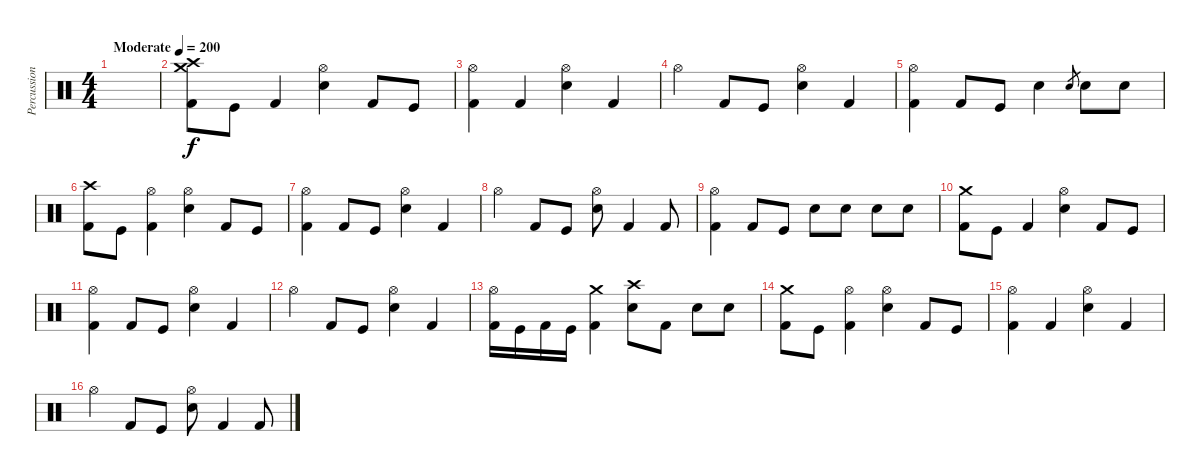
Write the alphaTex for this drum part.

\track ("Percussion" "Percussion") {instrument percussion}
\staff {score}
\articulation defaults
\ts (4 4)
\tempo (200 "Moderate")
\clef neutral
\ks c
|
("Crash medium (hit)" "Crash high (hit)" "Kick (hit) 2").8 "Kick (hit)".8 "Kick (hit) 2".4 ("Hi-Hat (open)" "Snare (hit) 2").4 "Kick (hit) 2".8 "Kick (hit)".8 |
("Hi-Hat (open)" "Kick (hit) 2").4 "Kick (hit) 2".4 ("Hi-Hat (open)" "Snare (hit) 2").4 "Kick (hit) 2".4 |
"Hi-Hat (open)".4 "Kick (hit) 2".8 "Kick (hit)".8 ("Hi-Hat (open)" "Snare (hit) 2").4 "Kick (hit) 2".4 |
("Hi-Hat (open)" "Kick (hit) 2").4 "Kick (hit) 2".8 "Kick (hit)".8 "Snare (hit) 2".4 "Snare (hit) 2".8{gr} "Snare (hit) 2".8 "Snare (hit) 2".8 |
("Crash high (hit)" "Kick (hit) 2").8 "Kick (hit)".8 ("Hi-Hat (open)" "Kick (hit) 2").4 ("Hi-Hat (open)" "Snare (hit) 2").4 "Kick (hit) 2".8 "Kick (hit)".8 |
("Hi-Hat (open)" "Kick (hit) 2").4 "Kick (hit) 2".8 "Kick (hit)".8 ("Hi-Hat (open)" "Snare (hit) 2").4 "Kick (hit) 2".4 |
"Hi-Hat (open)".4 "Kick (hit) 2".8 "Kick (hit)".8 ("Hi-Hat (open)" "Snare (hit) 2").8 "Kick (hit) 2".4 "Kick (hit) 2".8 |
("Hi-Hat (open)" "Kick (hit) 2").4 "Kick (hit) 2".8 "Kick (hit)".8 "Snare (hit) 2".8 "Snare (hit) 2".8 "Snare (hit) 2".8 "Snare (hit) 2".8 |
("Crash medium (hit)" "Kick (hit) 2").8 "Kick (hit)".8 "Kick (hit) 2".4 ("Hi-Hat (open)" "Snare (hit) 2").4 "Kick (hit) 2".8 "Kick (hit)".8 |
("Hi-Hat (open)" "Kick (hit) 2").4 "Kick (hit) 2".8 "Kick (hit)".8 ("Hi-Hat (open)" "Snare (hit) 2").4 "Kick (hit) 2".4 |
"Hi-Hat (open)".4 "Kick (hit) 2".8 "Kick (hit)".8 ("Hi-Hat (open)" "Snare (hit) 2").4 "Kick (hit) 2".4 |
("Hi-Hat (open)" "Kick (hit) 2").16 "Kick (hit)".16 "Kick (hit) 2".16 "Kick (hit)".16 ("Crash medium (hit)" "Kick (hit) 2").4 ("Crash high (hit)" "Snare (hit) 2").8 "Kick (hit) 2".8 "Snare (hit) 2".8 "Snare (hit) 2".8 |
("Crash medium (hit)" "Kick (hit) 2").8 "Kick (hit)".8 ("Hi-Hat (open)" "Kick (hit) 2").4 ("Hi-Hat (open)" "Snare (hit) 2").4 "Kick (hit) 2".8 "Kick (hit)".8 |
("Hi-Hat (open)" "Kick (hit) 2").4 "Kick (hit) 2".4 ("Hi-Hat (open)" "Snare (hit) 2").4 "Kick (hit) 2".4 |
"Hi-Hat (open)".4 "Kick (hit) 2".8 "Kick (hit)".8 ("Hi-Hat (open)" "Snare (hit) 2").8 "Kick (hit) 2".4 "Kick (hit) 2".8
